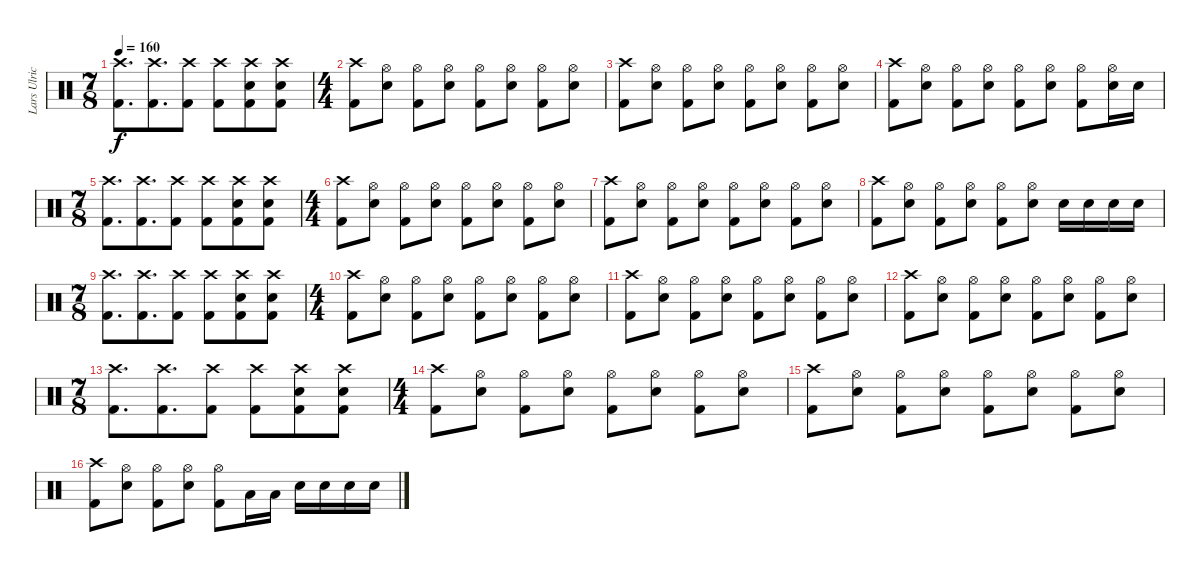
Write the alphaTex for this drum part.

\track ("Lars Ulrich" "Lars Ulric") {instrument percussion}
\staff {score}
\articulation defaults
\ts (7 8)
\tempo 160
\clef neutral
\ks c
("Crash high (hit)" "Kick (hit) 2").8{d dy f} ("Crash high (hit)" "Kick (hit) 2").8{d} ("Crash high (hit)" "Kick (hit) 2").8 ("Crash high (hit)" "Kick (hit) 2").8 ("Crash high (hit)" "Electric Snare (hit)" "Kick (hit) 2").8 ("Crash high (hit)" "Electric Snare (hit)" "Kick (hit) 2").8 |
\ts (4 4)
("Crash high (hit)" "Kick (hit) 2").8 ("Hi-Hat (open)" "Electric Snare (hit)").8 ("Hi-Hat (open)" "Kick (hit) 2").8 ("Hi-Hat (open)" "Electric Snare (hit)").8 ("Hi-Hat (open)" "Kick (hit) 2").8 ("Hi-Hat (open)" "Electric Snare (hit)").8 ("Hi-Hat (open)" "Kick (hit) 2").8 ("Hi-Hat (open)" "Electric Snare (hit)").8 |
("Crash high (hit)" "Kick (hit) 2").8 ("Hi-Hat (open)" "Electric Snare (hit)").8 ("Hi-Hat (open)" "Kick (hit) 2").8 ("Hi-Hat (open)" "Electric Snare (hit)").8 ("Hi-Hat (open)" "Kick (hit) 2").8 ("Hi-Hat (open)" "Electric Snare (hit)").8 ("Hi-Hat (open)" "Kick (hit) 2").8 ("Hi-Hat (open)" "Electric Snare (hit)").8 |
("Crash high (hit)" "Kick (hit) 2").8 ("Hi-Hat (open)" "Electric Snare (hit)").8 ("Hi-Hat (open)" "Kick (hit) 2").8 ("Hi-Hat (open)" "Electric Snare (hit)").8 ("Hi-Hat (open)" "Kick (hit) 2").8 ("Hi-Hat (open)" "Electric Snare (hit)").8 ("Hi-Hat (open)" "Kick (hit) 2").8 ("Hi-Hat (open)" "Electric Snare (hit)").16 "Electric Snare (hit)".16 |
\ts (7 8)
("Crash high (hit)" "Kick (hit) 2").8{d} ("Crash high (hit)" "Kick (hit) 2").8{d} ("Crash high (hit)" "Kick (hit) 2").8 ("Crash high (hit)" "Kick (hit) 2").8 ("Crash high (hit)" "Electric Snare (hit)" "Kick (hit) 2").8 ("Crash high (hit)" "Electric Snare (hit)" "Kick (hit) 2").8 |
\ts (4 4)
("Crash high (hit)" "Kick (hit) 2").8 ("Hi-Hat (open)" "Electric Snare (hit)").8 ("Hi-Hat (open)" "Kick (hit) 2").8 ("Hi-Hat (open)" "Electric Snare (hit)").8 ("Hi-Hat (open)" "Kick (hit) 2").8 ("Hi-Hat (open)" "Electric Snare (hit)").8 ("Hi-Hat (open)" "Kick (hit) 2").8 ("Hi-Hat (open)" "Electric Snare (hit)").8 |
("Crash high (hit)" "Kick (hit) 2").8 ("Hi-Hat (open)" "Electric Snare (hit)").8 ("Hi-Hat (open)" "Kick (hit) 2").8 ("Hi-Hat (open)" "Electric Snare (hit)").8 ("Hi-Hat (open)" "Kick (hit) 2").8 ("Hi-Hat (open)" "Electric Snare (hit)").8 ("Hi-Hat (open)" "Kick (hit) 2").8 ("Hi-Hat (open)" "Electric Snare (hit)").8 |
("Crash high (hit)" "Kick (hit) 2").8 ("Hi-Hat (open)" "Electric Snare (hit)").8 ("Hi-Hat (open)" "Kick (hit) 2").8 ("Hi-Hat (open)" "Electric Snare (hit)").8 ("Hi-Hat (open)" "Kick (hit) 2").8 ("Hi-Hat (open)" "Electric Snare (hit)").8 "Electric Snare (hit)".16 "Electric Snare (hit)".16 "Electric Snare (hit)".16 "Electric Snare (hit)".16 |
\ts (7 8)
("Crash high (hit)" "Kick (hit) 2").8{d} ("Crash high (hit)" "Kick (hit) 2").8{d} ("Crash high (hit)" "Kick (hit) 2").8 ("Crash high (hit)" "Kick (hit) 2").8 ("Crash high (hit)" "Electric Snare (hit)" "Kick (hit) 2").8 ("Crash high (hit)" "Electric Snare (hit)" "Kick (hit) 2").8 |
\ts (4 4)
("Crash high (hit)" "Kick (hit) 2").8 ("Hi-Hat (open)" "Electric Snare (hit)").8 ("Hi-Hat (open)" "Kick (hit) 2").8 ("Hi-Hat (open)" "Electric Snare (hit)").8 ("Hi-Hat (open)" "Kick (hit) 2").8 ("Hi-Hat (open)" "Electric Snare (hit)").8 ("Hi-Hat (open)" "Kick (hit) 2").8 ("Hi-Hat (open)" "Electric Snare (hit)").8 |
("Crash high (hit)" "Kick (hit) 2").8 ("Hi-Hat (open)" "Electric Snare (hit)").8 ("Hi-Hat (open)" "Kick (hit) 2").8 ("Hi-Hat (open)" "Electric Snare (hit)").8 ("Hi-Hat (open)" "Kick (hit) 2").8 ("Hi-Hat (open)" "Electric Snare (hit)").8 ("Hi-Hat (open)" "Kick (hit) 2").8 ("Hi-Hat (open)" "Electric Snare (hit)").8 |
("Crash high (hit)" "Kick (hit) 2").8 ("Hi-Hat (open)" "Electric Snare (hit)").8 ("Hi-Hat (open)" "Kick (hit) 2").8 ("Hi-Hat (open)" "Electric Snare (hit)").8 ("Hi-Hat (open)" "Kick (hit) 2").8 ("Hi-Hat (open)" "Electric Snare (hit)").8 ("Hi-Hat (open)" "Kick (hit) 2").8 ("Hi-Hat (open)" "Electric Snare (hit)").8 |
\ts (7 8)
("Crash high (hit)" "Kick (hit) 2").8{d} ("Crash high (hit)" "Kick (hit) 2").8{d} ("Crash high (hit)" "Kick (hit) 2").8 ("Crash high (hit)" "Kick (hit) 2").8 ("Crash high (hit)" "Electric Snare (hit)" "Kick (hit) 2").8 ("Crash high (hit)" "Electric Snare (hit)" "Kick (hit) 2").8 |
\ts (4 4)
("Crash high (hit)" "Kick (hit) 2").8 ("Hi-Hat (open)" "Electric Snare (hit)").8 ("Hi-Hat (open)" "Kick (hit) 2").8 ("Hi-Hat (open)" "Electric Snare (hit)").8 ("Hi-Hat (open)" "Kick (hit) 2").8 ("Hi-Hat (open)" "Electric Snare (hit)").8 ("Hi-Hat (open)" "Kick (hit) 2").8 ("Hi-Hat (open)" "Electric Snare (hit)").8 |
("Crash high (hit)" "Kick (hit) 2").8 ("Hi-Hat (open)" "Electric Snare (hit)").8 ("Hi-Hat (open)" "Kick (hit) 2").8 ("Hi-Hat (open)" "Electric Snare (hit)").8 ("Hi-Hat (open)" "Kick (hit) 2").8 ("Hi-Hat (open)" "Electric Snare (hit)").8 ("Hi-Hat (open)" "Kick (hit) 2").8 ("Hi-Hat (open)" "Electric Snare (hit)").8 |
("Crash high (hit)" "Kick (hit) 2").8 ("Hi-Hat (open)" "Electric Snare (hit)").8 ("Hi-Hat (open)" "Kick (hit) 2").8 ("Hi-Hat (open)" "Electric Snare (hit)").8 ("Hi-Hat (open)" "Kick (hit) 2").8 "Low Tom (hit)".16 "Low Tom (hit)".16 "Electric Snare (hit)".16 "Electric Snare (hit)".16 "Electric Snare (hit)".16 "Electric Snare (hit)".16
